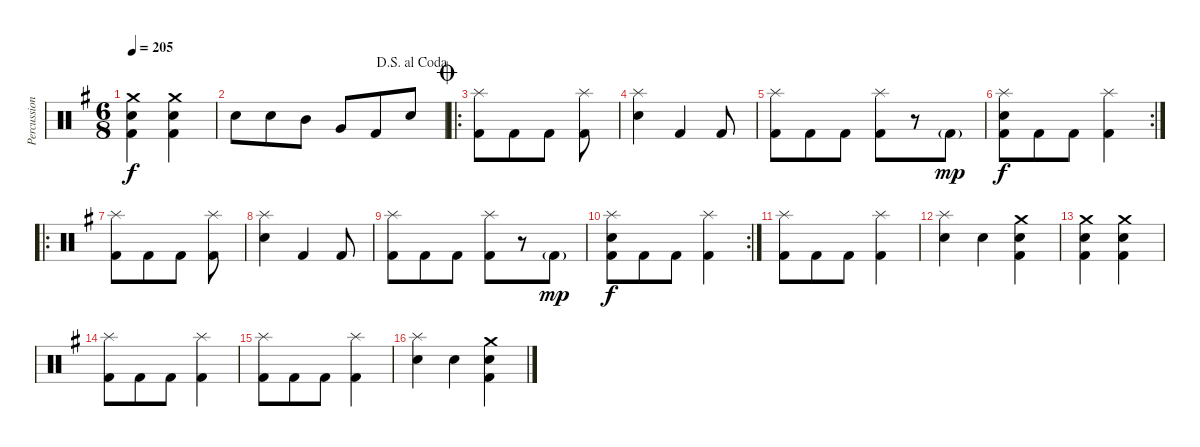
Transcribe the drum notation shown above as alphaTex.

\track ("Percussion" "Percussion") {instrument percussion}
\staff {score}
\articulation defaults
\ts (6 8)
\tempo 205
\clef neutral
\ks g
("Crash medium (hit)" "Kick (hit) 2" "Electric Snare (hit)").4{dy f} ("Crash medium (hit)" "Kick (hit) 2" "Electric Snare (hit)").4 |
\jump dalsegnoalcoda "Electric Snare (hit)".8 "Electric Snare (hit)".8 "Mid Tom (hit)".8 "Very Low Tom (hit)".8 "Kick (hit) 2".8 "Electric Snare (hit)".8
|
\ro
\jump coda
("Splash (hit)" "Kick (hit) 2").8 "Kick (hit) 2".8 "Kick (hit) 2".8 ("Splash (hit)" "Kick (hit) 2").8 |
("Splash (hit)" "Electric Snare (hit)").4 "Kick (hit) 2".4 "Kick (hit) 2".8 |
("Splash (hit)" "Kick (hit) 2").8 "Kick (hit) 2".8 "Kick (hit) 2".8 ("Splash (hit)" "Kick (hit) 2").8 r.8 "Kick (hit) 2"{g}.8{dy mp} |
\rc 2
("Electric Snare (hit)" "Kick (hit) 2" "Splash (hit)").8{dy f} "Kick (hit) 2".8 "Kick (hit) 2".8 ("Splash (hit)" "Kick (hit) 2").4 |
\ro
("Splash (hit)" "Kick (hit) 2").8 "Kick (hit) 2".8 "Kick (hit) 2".8 ("Splash (hit)" "Kick (hit) 2").8 |
("Splash (hit)" "Electric Snare (hit)").4 "Kick (hit) 2".4 "Kick (hit) 2".8 |
("Splash (hit)" "Kick (hit) 2").8 "Kick (hit) 2".8 "Kick (hit) 2".8 ("Splash (hit)" "Kick (hit) 2").8 r.8 "Kick (hit) 2"{g}.8{dy mp} |
\rc 2
("Electric Snare (hit)" "Kick (hit) 2" "Splash (hit)").8{dy f} "Kick (hit) 2".8 "Kick (hit) 2".8 ("Splash (hit)" "Kick (hit) 2").4 |
("Splash (hit)" "Kick (hit) 2").8 "Kick (hit) 2".8 "Kick (hit) 2".8 ("Splash (hit)" "Kick (hit) 2").4 |
("Splash (hit)" "Electric Snare (hit)").4 "Snare (hit)".4 ("Crash medium (hit)" "Kick (hit) 2" "Electric Snare (hit)").4 |
("Crash medium (hit)" "Kick (hit) 2" "Electric Snare (hit)").4 ("Crash medium (hit)" "Kick (hit) 2" "Electric Snare (hit)").4 |
("Splash (hit)" "Kick (hit) 2").8 "Kick (hit) 2".8 "Kick (hit) 2".8 ("Splash (hit)" "Kick (hit) 2").4 |
("Splash (hit)" "Kick (hit) 2").8 "Kick (hit) 2".8 "Kick (hit) 2".8 ("Splash (hit)" "Kick (hit) 2").4 |
("Splash (hit)" "Electric Snare (hit)").4 "Snare (hit)".4 ("Crash medium (hit)" "Kick (hit) 2" "Electric Snare (hit)").4
